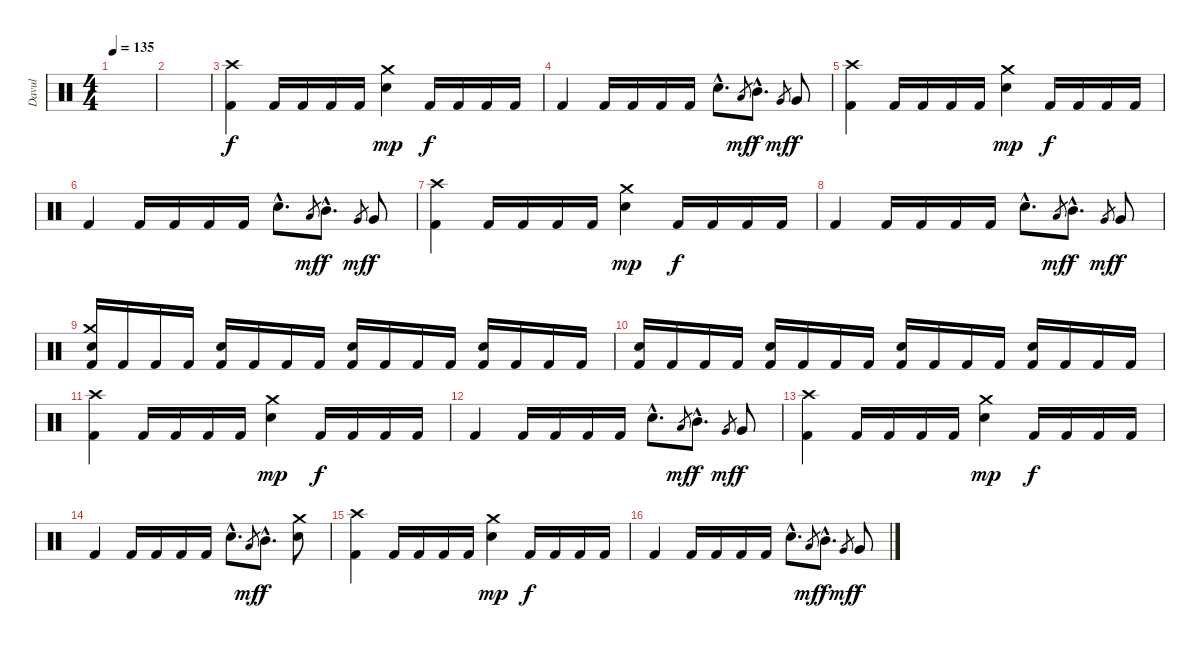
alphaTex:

\track ("Davul" "Davul") {instrument percussion}
\staff {score}
\articulation defaults
\ts (4 4)
\section ("" "")
\tempo 135
\clef neutral
\ks c
|
|
\section ("" "")
("Crash high (hit)" "Kick (hit) 2").4 "Kick (hit) 2".16 "Kick (hit) 2".16 "Kick (hit) 2".16 "Kick (hit) 2".16 ("Crash medium (hit)" "Electric Snare (hit)").4{dy mp} "Kick (hit) 2".16{dy f} "Kick (hit) 2".16 "Kick (hit) 2".16 "Kick (hit) 2".16 |
"Kick (hit) 2".4 "Kick (hit) 2".16 "Kick (hit) 2".16 "Kick (hit) 2".16 "Kick (hit) 2".16 "Electric Snare (hit)"{hac}.8{d} "Low Tom (hit)".8{gr dy mf} "Mid Tom (hit)"{hac}.8{d dy f} "Very Low Tom (hit)".8{gr dy mf} "Very Low Tom (hit)".8{dy f} |
("Crash high (hit)" "Kick (hit) 2").4 "Kick (hit) 2".16 "Kick (hit) 2".16 "Kick (hit) 2".16 "Kick (hit) 2".16 ("Crash medium (hit)" "Electric Snare (hit)").4{dy mp} "Kick (hit) 2".16{dy f} "Kick (hit) 2".16 "Kick (hit) 2".16 "Kick (hit) 2".16 |
"Kick (hit) 2".4 "Kick (hit) 2".16 "Kick (hit) 2".16 "Kick (hit) 2".16 "Kick (hit) 2".16 "Electric Snare (hit)"{hac}.8{d} "Low Tom (hit)".8{gr dy mf} "Mid Tom (hit)"{hac}.8{d dy f} "Very Low Tom (hit)".8{gr dy mf} "Very Low Tom (hit)".8{dy f} |
("Crash high (hit)" "Kick (hit) 2").4 "Kick (hit) 2".16 "Kick (hit) 2".16 "Kick (hit) 2".16 "Kick (hit) 2".16 ("Crash medium (hit)" "Electric Snare (hit)").4{dy mp} "Kick (hit) 2".16{dy f} "Kick (hit) 2".16 "Kick (hit) 2".16 "Kick (hit) 2".16 |
"Kick (hit) 2".4 "Kick (hit) 2".16 "Kick (hit) 2".16 "Kick (hit) 2".16 "Kick (hit) 2".16 "Electric Snare (hit)"{hac}.8{d} "Low Tom (hit)".8{gr dy mf} "Mid Tom (hit)"{hac}.8{d dy f} "Very Low Tom (hit)".8{gr dy mf} "Very Low Tom (hit)".8{dy f} |
("Crash medium (hit)" "Electric Snare (hit)" "Kick (hit) 2").16 "Kick (hit) 2".16 "Kick (hit) 2".16 "Kick (hit) 2".16 ("Electric Snare (hit)" "Kick (hit) 2").16 "Kick (hit) 2".16 "Kick (hit) 2".16 "Kick (hit) 2".16 ("Electric Snare (hit)" "Kick (hit) 2").16 "Kick (hit) 2".16 "Kick (hit) 2".16 "Kick (hit) 2".16 ("Electric Snare (hit)" "Kick (hit) 2").16 "Kick (hit) 2".16 "Kick (hit) 2".16 "Kick (hit) 2".16 |
("Electric Snare (hit)" "Kick (hit) 2").16 "Kick (hit) 2".16 "Kick (hit) 2".16 "Kick (hit) 2".16 ("Electric Snare (hit)" "Kick (hit) 2").16 "Kick (hit) 2".16 "Kick (hit) 2".16 "Kick (hit) 2".16 ("Electric Snare (hit)" "Kick (hit) 2").16 "Kick (hit) 2".16 "Kick (hit) 2".16 "Kick (hit) 2".16 ("Electric Snare (hit)" "Kick (hit) 2").16 "Kick (hit) 2".16 "Kick (hit) 2".16 "Kick (hit) 2".16 |
("Crash high (hit)" "Kick (hit) 2").4 "Kick (hit) 2".16 "Kick (hit) 2".16 "Kick (hit) 2".16 "Kick (hit) 2".16 ("Crash medium (hit)" "Electric Snare (hit)").4{dy mp} "Kick (hit) 2".16{dy f} "Kick (hit) 2".16 "Kick (hit) 2".16 "Kick (hit) 2".16 |
"Kick (hit) 2".4 "Kick (hit) 2".16 "Kick (hit) 2".16 "Kick (hit) 2".16 "Kick (hit) 2".16 "Electric Snare (hit)"{hac}.8{d} "Low Tom (hit)".8{gr dy mf} "Mid Tom (hit)"{hac}.8{d dy f} "Very Low Tom (hit)".8{gr dy mf} "Very Low Tom (hit)".8{dy f} |
("Crash high (hit)" "Kick (hit) 2").4 "Kick (hit) 2".16 "Kick (hit) 2".16 "Kick (hit) 2".16 "Kick (hit) 2".16 ("Crash medium (hit)" "Electric Snare (hit)").4{dy mp} "Kick (hit) 2".16{dy f} "Kick (hit) 2".16 "Kick (hit) 2".16 "Kick (hit) 2".16 |
"Kick (hit) 2".4 "Kick (hit) 2".16 "Kick (hit) 2".16 "Kick (hit) 2".16 "Kick (hit) 2".16 "Electric Snare (hit)"{hac}.8{d} "Low Tom (hit)".8{gr dy mf} "Mid Tom (hit)"{hac}.8{d dy f} ("Crash medium (hit)" "Electric Snare (hit)").8 |
("Crash high (hit)" "Kick (hit) 2").4 "Kick (hit) 2".16 "Kick (hit) 2".16 "Kick (hit) 2".16 "Kick (hit) 2".16 ("Crash medium (hit)" "Electric Snare (hit)").4{dy mp} "Kick (hit) 2".16{dy f} "Kick (hit) 2".16 "Kick (hit) 2".16 "Kick (hit) 2".16 |
"Kick (hit) 2".4 "Kick (hit) 2".16 "Kick (hit) 2".16 "Kick (hit) 2".16 "Kick (hit) 2".16 "Electric Snare (hit)"{hac}.8{d} "Low Tom (hit)".8{gr dy mf} "Mid Tom (hit)"{hac}.8{d dy f} "Very Low Tom (hit)".8{gr dy mf} "Very Low Tom (hit)".8{dy f}
